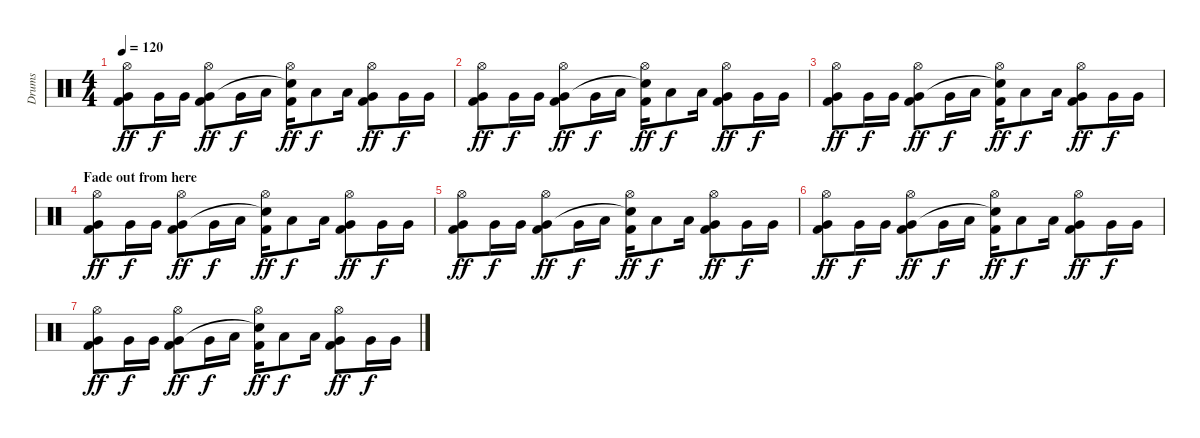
\track ("Drums" "Drums") {instrument percussion}
\staff {score}
\articulation defaults
\ts (4 4)
\tempo 120
\clef neutral
\ks c
("Hi-Hat (open)" "Very Low Tom (hit)" "Kick (hit) 2").8{dy ff} "Very Low Tom (hit)".16{dy f} "Very Low Tom (hit)".16 ("Hi-Hat (open)" "Very Low Tom (hit)" "Kick (hit) 2").8{dy ff} "Very Low Tom (hit)".16{dy f} "Low Tom (hit)".16 ("Hi-Hat (open)" "Snare (hit)"{t} "Kick (hit) 2").16{dy ff} "Low Tom (hit)".8{dy f} "Low Tom (hit)".16 ("Hi-Hat (open)" "Very Low Tom (hit)" "Kick (hit) 2").8{dy ff} "Very Low Tom (hit)".16{dy f} "Very Low Tom (hit)".16 |
("Hi-Hat (open)" "Very Low Tom (hit)" "Kick (hit) 2").8{dy ff} "Very Low Tom (hit)".16{dy f} "Very Low Tom (hit)".16 ("Hi-Hat (open)" "Very Low Tom (hit)" "Kick (hit) 2").8{dy ff} "Very Low Tom (hit)".16{dy f} "Low Tom (hit)".16 ("Hi-Hat (open)" "Snare (hit)"{t} "Kick (hit) 2").16{dy ff} "Low Tom (hit)".8{dy f} "Low Tom (hit)".16 ("Hi-Hat (open)" "Very Low Tom (hit)" "Kick (hit) 2").8{dy ff} "Very Low Tom (hit)".16{dy f} "Very Low Tom (hit)".16 |
("Hi-Hat (open)" "Very Low Tom (hit)" "Kick (hit) 2").8{dy ff} "Very Low Tom (hit)".16{dy f} "Very Low Tom (hit)".16 ("Hi-Hat (open)" "Very Low Tom (hit)" "Kick (hit) 2").8{dy ff} "Very Low Tom (hit)".16{dy f} "Low Tom (hit)".16 ("Hi-Hat (open)" "Snare (hit)"{t} "Kick (hit) 2").16{dy ff} "Low Tom (hit)".8{dy f} "Low Tom (hit)".16 ("Hi-Hat (open)" "Very Low Tom (hit)" "Kick (hit) 2").8{dy ff} "Very Low Tom (hit)".16{dy f} "Very Low Tom (hit)".16 |
\section ("" "Fade out from here")
("Hi-Hat (open)" "Very Low Tom (hit)" "Kick (hit) 2").8{dy ff volume 10} "Very Low Tom (hit)".16{dy f} "Very Low Tom (hit)".16 ("Hi-Hat (open)" "Very Low Tom (hit)" "Kick (hit) 2").8{dy ff} "Very Low Tom (hit)".16{dy f} "Low Tom (hit)".16 ("Hi-Hat (open)" "Snare (hit)"{t} "Kick (hit) 2").16{dy ff} "Low Tom (hit)".8{dy f} "Low Tom (hit)".16 ("Hi-Hat (open)" "Very Low Tom (hit)" "Kick (hit) 2").8{dy ff} "Very Low Tom (hit)".16{dy f} "Very Low Tom (hit)".16 |
("Hi-Hat (open)" "Very Low Tom (hit)" "Kick (hit) 2").8{dy ff} "Very Low Tom (hit)".16{dy f} "Very Low Tom (hit)".16 ("Hi-Hat (open)" "Very Low Tom (hit)" "Kick (hit) 2").8{dy ff} "Very Low Tom (hit)".16{dy f} "Low Tom (hit)".16 ("Hi-Hat (open)" "Snare (hit)"{t} "Kick (hit) 2").16{dy ff} "Low Tom (hit)".8{dy f} "Low Tom (hit)".16 ("Hi-Hat (open)" "Very Low Tom (hit)" "Kick (hit) 2").8{dy ff} "Very Low Tom (hit)".16{dy f} "Very Low Tom (hit)".16 |
("Hi-Hat (open)" "Very Low Tom (hit)" "Kick (hit) 2").8{dy ff volume 0} "Very Low Tom (hit)".16{dy f} "Very Low Tom (hit)".16 ("Hi-Hat (open)" "Very Low Tom (hit)" "Kick (hit) 2").8{dy ff} "Very Low Tom (hit)".16{dy f} "Low Tom (hit)".16 ("Hi-Hat (open)" "Snare (hit)"{t} "Kick (hit) 2").16{dy ff} "Low Tom (hit)".8{dy f} "Low Tom (hit)".16 ("Hi-Hat (open)" "Very Low Tom (hit)" "Kick (hit) 2").8{dy ff} "Very Low Tom (hit)".16{dy f} "Very Low Tom (hit)".16 |
("Hi-Hat (open)" "Very Low Tom (hit)" "Kick (hit) 2").8{dy ff} "Very Low Tom (hit)".16{dy f} "Very Low Tom (hit)".16 ("Hi-Hat (open)" "Very Low Tom (hit)" "Kick (hit) 2").8{dy ff} "Very Low Tom (hit)".16{dy f} "Low Tom (hit)".16 ("Hi-Hat (open)" "Snare (hit)"{t} "Kick (hit) 2").16{dy ff} "Low Tom (hit)".8{dy f} "Low Tom (hit)".16 ("Hi-Hat (open)" "Very Low Tom (hit)" "Kick (hit) 2").8{dy ff} "Very Low Tom (hit)".16{dy f} "Very Low Tom (hit)".16
